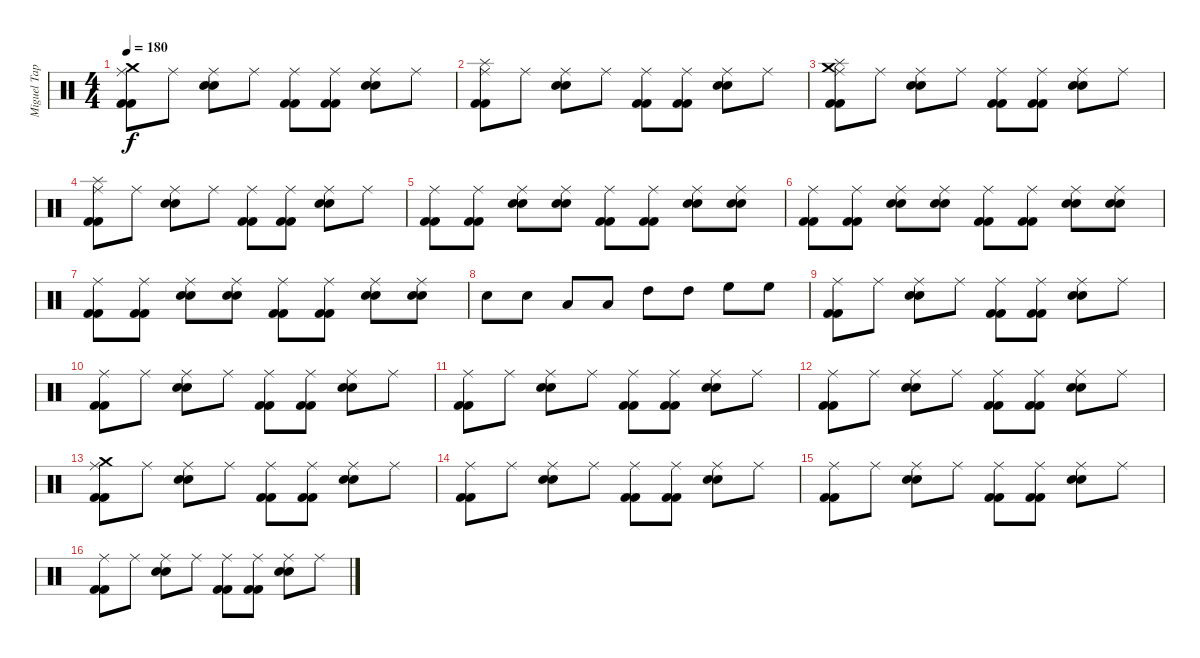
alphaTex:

\track ("Miguel Tapia" "Miguel Tap") {instrument percussion}
\staff {score}
\articulation defaults
\ts (4 4)
\tempo 180
\clef neutral
\ks c
("Ride (middle)" "Kick (hit) 2" "Kick (hit) 2" "Crash medium (hit)").8{dy f} "Ride (middle)".8 ("Ride (middle)" "Electric Snare (hit)" "Electric Snare (hit)").8 "Ride (middle)".8 ("Ride (middle)" "Kick (hit) 2" "Kick (hit) 2").8 ("Ride (middle)" "Kick (hit) 2" "Kick (hit) 2").8 ("Ride (middle)" "Electric Snare (hit)" "Electric Snare (hit)").8 "Ride (middle)".8 |
("Ride (middle)" "Kick (hit) 2" "Kick (hit) 2" "Splash (hit)").8 "Ride (middle)".8 ("Ride (middle)" "Electric Snare (hit)" "Electric Snare (hit)").8 "Ride (middle)".8 ("Ride (middle)" "Kick (hit) 2" "Kick (hit) 2").8 ("Ride (middle)" "Kick (hit) 2" "Kick (hit) 2").8 ("Ride (middle)" "Electric Snare (hit)" "Electric Snare (hit)").8 "Ride (middle)".8 |
("Ride (middle)" "Kick (hit) 2" "Kick (hit) 2" "Crash medium (hit)" "Splash (hit)").8 "Ride (middle)".8 ("Ride (middle)" "Electric Snare (hit)" "Electric Snare (hit)").8 "Ride (middle)".8 ("Ride (middle)" "Kick (hit) 2" "Kick (hit) 2").8 ("Ride (middle)" "Kick (hit) 2" "Kick (hit) 2").8 ("Ride (middle)" "Electric Snare (hit)" "Electric Snare (hit)").8 "Ride (middle)".8 |
("Ride (middle)" "Kick (hit) 2" "Kick (hit) 2" "Splash (hit)").8 "Ride (middle)".8 ("Ride (middle)" "Electric Snare (hit)" "Electric Snare (hit)").8 "Ride (middle)".8 ("Ride (middle)" "Kick (hit) 2" "Kick (hit) 2").8 ("Ride (middle)" "Kick (hit) 2" "Kick (hit) 2").8 ("Ride (middle)" "Electric Snare (hit)" "Electric Snare (hit)").8 "Ride (middle)".8 |
("Ride (middle)" "Kick (hit) 2" "Kick (hit) 2").8 ("Ride (middle)" "Kick (hit) 2" "Kick (hit) 2").8 ("Ride (middle)" "Electric Snare (hit)" "Electric Snare (hit)").8 ("Ride (middle)" "Electric Snare (hit)" "Electric Snare (hit)").8 ("Ride (middle)" "Kick (hit) 2" "Kick (hit) 2").8 ("Ride (middle)" "Kick (hit) 2" "Kick (hit) 2").8 ("Ride (middle)" "Electric Snare (hit)" "Electric Snare (hit)").8 ("Ride (middle)" "Electric Snare (hit)" "Electric Snare (hit)").8 |
("Ride (middle)" "Kick (hit) 2" "Kick (hit) 2").8 ("Ride (middle)" "Kick (hit) 2" "Kick (hit) 2").8 ("Ride (middle)" "Electric Snare (hit)" "Electric Snare (hit)").8 ("Ride (middle)" "Electric Snare (hit)" "Electric Snare (hit)").8 ("Ride (middle)" "Kick (hit) 2" "Kick (hit) 2").8 ("Ride (middle)" "Kick (hit) 2" "Kick (hit) 2").8 ("Ride (middle)" "Electric Snare (hit)" "Electric Snare (hit)").8 ("Ride (middle)" "Electric Snare (hit)" "Electric Snare (hit)").8 |
("Ride (middle)" "Kick (hit) 2" "Kick (hit) 2").8 ("Ride (middle)" "Kick (hit) 2" "Kick (hit) 2").8 ("Ride (middle)" "Electric Snare (hit)" "Electric Snare (hit)").8 ("Ride (middle)" "Electric Snare (hit)" "Electric Snare (hit)").8 ("Ride (middle)" "Kick (hit) 2" "Kick (hit) 2").8 ("Ride (middle)" "Kick (hit) 2" "Kick (hit) 2").8 ("Ride (middle)" "Electric Snare (hit)" "Electric Snare (hit)").8 ("Ride (middle)" "Electric Snare (hit)" "Electric Snare (hit)").8 |
"Electric Snare (hit)".8 "Electric Snare (hit)".8 "Low Tom (hit)".8 "Low Tom (hit)".8 "High Tom (hit)".8 "High Tom (hit)".8 "High Floor Tom (hit)".8 "High Floor Tom (hit)".8 |
("Ride (middle)" "Kick (hit) 2" "Kick (hit) 2").8 "Ride (middle)".8 ("Ride (middle)" "Electric Snare (hit)" "Electric Snare (hit)").8 "Ride (middle)".8 ("Ride (middle)" "Kick (hit) 2" "Kick (hit) 2").8 ("Ride (middle)" "Kick (hit) 2" "Kick (hit) 2").8 ("Ride (middle)" "Electric Snare (hit)" "Electric Snare (hit)").8 "Ride (middle)".8 |
("Ride (middle)" "Kick (hit) 2" "Kick (hit) 2").8 "Ride (middle)".8 ("Ride (middle)" "Electric Snare (hit)" "Electric Snare (hit)").8 "Ride (middle)".8 ("Ride (middle)" "Kick (hit) 2" "Kick (hit) 2").8 ("Ride (middle)" "Kick (hit) 2" "Kick (hit) 2").8 ("Ride (middle)" "Electric Snare (hit)" "Electric Snare (hit)").8 "Ride (middle)".8 |
("Ride (middle)" "Kick (hit) 2" "Kick (hit) 2").8 "Ride (middle)".8 ("Ride (middle)" "Electric Snare (hit)" "Electric Snare (hit)").8 "Ride (middle)".8 ("Ride (middle)" "Kick (hit) 2" "Kick (hit) 2").8 ("Ride (middle)" "Kick (hit) 2" "Kick (hit) 2").8 ("Ride (middle)" "Electric Snare (hit)" "Electric Snare (hit)").8 "Ride (middle)".8 |
("Ride (middle)" "Kick (hit) 2" "Kick (hit) 2").8 "Ride (middle)".8 ("Ride (middle)" "Electric Snare (hit)" "Electric Snare (hit)").8 "Ride (middle)".8 ("Ride (middle)" "Kick (hit) 2" "Kick (hit) 2").8 ("Ride (middle)" "Kick (hit) 2" "Kick (hit) 2").8 ("Ride (middle)" "Electric Snare (hit)" "Electric Snare (hit)").8 "Ride (middle)".8 |
("Ride (middle)" "Kick (hit) 2" "Kick (hit) 2" "Crash medium (hit)").8 "Ride (middle)".8 ("Ride (middle)" "Electric Snare (hit)" "Electric Snare (hit)").8 "Ride (middle)".8 ("Ride (middle)" "Kick (hit) 2" "Kick (hit) 2").8 ("Ride (middle)" "Kick (hit) 2" "Kick (hit) 2").8 ("Ride (middle)" "Electric Snare (hit)" "Electric Snare (hit)").8 "Ride (middle)".8 |
("Ride (middle)" "Kick (hit) 2" "Kick (hit) 2").8 "Ride (middle)".8 ("Ride (middle)" "Electric Snare (hit)" "Electric Snare (hit)").8 "Ride (middle)".8 ("Ride (middle)" "Kick (hit) 2" "Kick (hit) 2").8 ("Ride (middle)" "Kick (hit) 2" "Kick (hit) 2").8 ("Ride (middle)" "Electric Snare (hit)" "Electric Snare (hit)").8 "Ride (middle)".8 |
("Ride (middle)" "Kick (hit) 2" "Kick (hit) 2").8 "Ride (middle)".8 ("Ride (middle)" "Electric Snare (hit)" "Electric Snare (hit)").8 "Ride (middle)".8 ("Ride (middle)" "Kick (hit) 2" "Kick (hit) 2").8 ("Ride (middle)" "Kick (hit) 2" "Kick (hit) 2").8 ("Ride (middle)" "Electric Snare (hit)" "Electric Snare (hit)").8 "Ride (middle)".8 |
("Ride (middle)" "Kick (hit) 2" "Kick (hit) 2").8 "Ride (middle)".8 ("Ride (middle)" "Electric Snare (hit)" "Electric Snare (hit)").8 "Ride (middle)".8 ("Ride (middle)" "Kick (hit) 2" "Kick (hit) 2").8 ("Ride (middle)" "Kick (hit) 2" "Kick (hit) 2").8 ("Ride (middle)" "Electric Snare (hit)" "Electric Snare (hit)").8 "Ride (middle)".8
